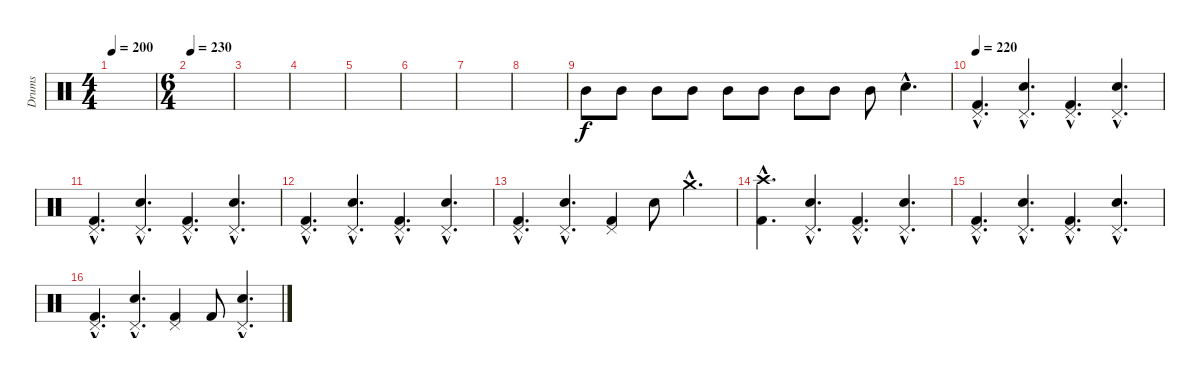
\track ("Drums" "Drums") {instrument percussion}
\staff {score}
\articulation defaults
\ts (4 4)
\tempo 200
\clef neutral
\ks c
|
\ts (6 4)
\tempo 230
|
|
|
|
|
|
|
"Mid Tom (hit)".8 "Mid Tom (hit)".8 "Mid Tom (hit)".8 "Mid Tom (hit)".8 "Mid Tom (hit)".8 "Mid Tom (hit)".8 "Mid Tom (hit)".8 "Mid Tom (hit)".8 "Mid Tom (hit)".8 "Snare (hit) 2"{hac}.4{d} |
\tempo 220
("Pedal Hi-Hat (hit)"{hac} "Kick (hit) 2"{hac}).4{d} ("Pedal Hi-Hat (hit)"{hac} "Snare (hit) 2"{hac}).4{d} ("Pedal Hi-Hat (hit)"{hac} "Kick (hit) 2"{hac}).4{d} ("Pedal Hi-Hat (hit)"{hac} "Snare (hit) 2"{hac}).4{d} |
("Pedal Hi-Hat (hit)"{hac} "Kick (hit) 2"{hac}).4{d} ("Pedal Hi-Hat (hit)"{hac} "Snare (hit) 2"{hac}).4{d} ("Pedal Hi-Hat (hit)"{hac} "Kick (hit) 2"{hac}).4{d} ("Pedal Hi-Hat (hit)"{hac} "Snare (hit) 2"{hac}).4{d} |
("Pedal Hi-Hat (hit)"{hac} "Kick (hit) 2"{hac}).4{d} ("Pedal Hi-Hat (hit)"{hac} "Snare (hit) 2"{hac}).4{d} ("Pedal Hi-Hat (hit)"{hac} "Kick (hit) 2"{hac}).4{d} ("Pedal Hi-Hat (hit)"{hac} "Snare (hit) 2"{hac}).4{d} |
("Pedal Hi-Hat (hit)"{hac} "Kick (hit) 2"{hac}).4{d} ("Pedal Hi-Hat (hit)"{hac} "Snare (hit) 2"{hac}).4{d} ("Pedal Hi-Hat (hit)" "Kick (hit) 2").4 "Snare (hit) 2".8 "Crash medium (hit)"{hac}.4{d} |
("Crash high (hit)"{hac} "Kick (hit) 2"{hac}).4{d} ("Pedal Hi-Hat (hit)"{hac} "Snare (hit) 2"{hac}).4{d} ("Pedal Hi-Hat (hit)"{hac} "Kick (hit) 2"{hac}).4{d} ("Pedal Hi-Hat (hit)"{hac} "Snare (hit) 2"{hac}).4{d} |
("Pedal Hi-Hat (hit)"{hac} "Kick (hit) 2"{hac}).4{d} ("Pedal Hi-Hat (hit)"{hac} "Snare (hit) 2"{hac}).4{d} ("Pedal Hi-Hat (hit)"{hac} "Kick (hit) 2"{hac}).4{d} ("Pedal Hi-Hat (hit)"{hac} "Snare (hit) 2"{hac}).4{d} |
("Pedal Hi-Hat (hit)"{hac} "Kick (hit) 2"{hac}).4{d} ("Pedal Hi-Hat (hit)"{hac} "Snare (hit) 2"{hac}).4{d} ("Pedal Hi-Hat (hit)" "Kick (hit) 2").4 "Kick (hit) 2".8 ("Pedal Hi-Hat (hit)"{hac} "Snare (hit) 2"{hac}).4{d}
